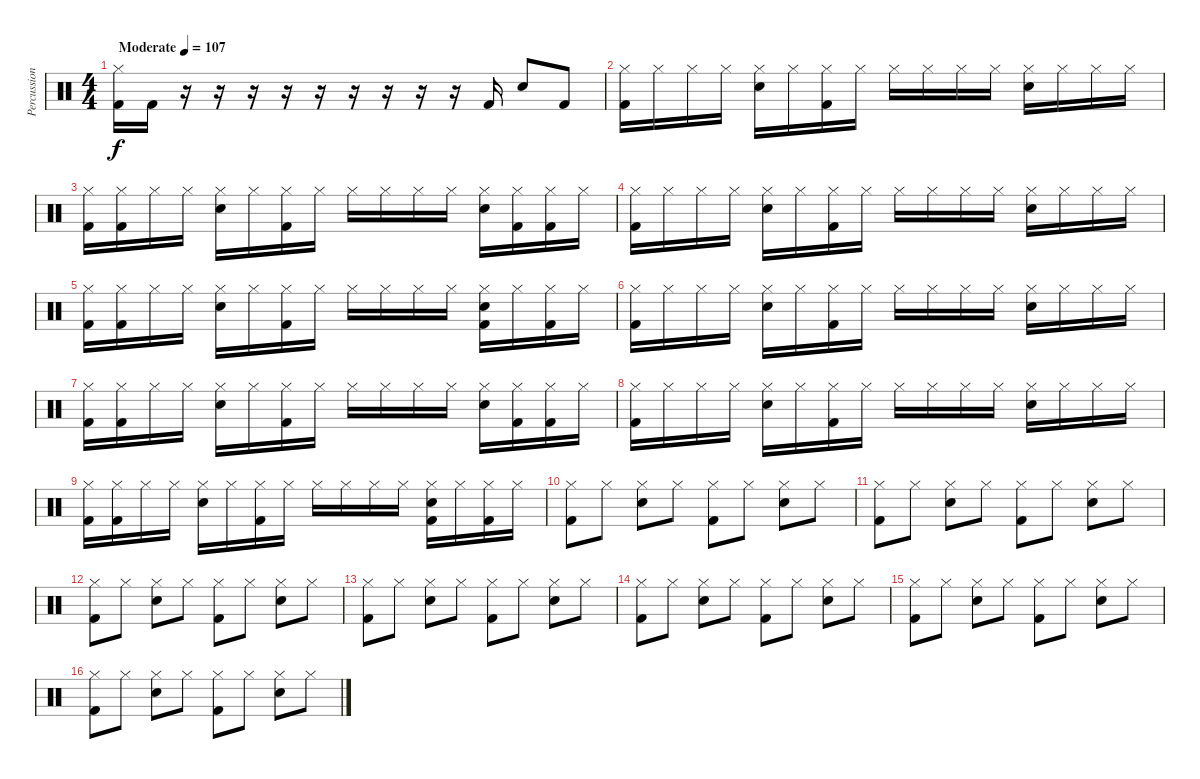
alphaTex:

\track ("Percussion" "Percussion") {instrument percussion}
\staff {score}
\articulation defaults
\ts (4 4)
\tempo (107 "Moderate")
\clef neutral
\ks c
("Kick (hit) 2" "Hi-Hat (closed)").16{dy f} "Kick (hit) 2".16 r.16 r.16 r.16 r.16 r.16 r.16 r.16 r.16 r.16 "Kick (hit) 2".16 "Snare (hit) 2".8 "Kick (hit) 2".8 |
("Hi-Hat (closed)" "Kick (hit) 2").16 "Hi-Hat (closed)".16 "Hi-Hat (closed)".16 "Hi-Hat (closed)".16 ("Hi-Hat (closed)" "Snare (hit) 2").16 "Hi-Hat (closed)".16 ("Hi-Hat (closed)" "Kick (hit) 2").16 "Hi-Hat (closed)".16 "Hi-Hat (closed)".16 "Hi-Hat (closed)".16 "Hi-Hat (closed)".16 "Hi-Hat (closed)".16 ("Hi-Hat (closed)" "Snare (hit) 2").16 "Hi-Hat (closed)".16 "Hi-Hat (closed)".16 "Hi-Hat (closed)".16 |
("Hi-Hat (closed)" "Kick (hit) 2").16 ("Hi-Hat (closed)" "Kick (hit) 2").16 "Hi-Hat (closed)".16 "Hi-Hat (closed)".16 ("Hi-Hat (closed)" "Snare (hit) 2").16 "Hi-Hat (closed)".16 ("Hi-Hat (closed)" "Kick (hit) 2").16 "Hi-Hat (closed)".16 "Hi-Hat (closed)".16 "Hi-Hat (closed)".16 "Hi-Hat (closed)".16 "Hi-Hat (closed)".16 ("Hi-Hat (closed)" "Snare (hit) 2").16 ("Hi-Hat (closed)" "Kick (hit) 2").16 ("Hi-Hat (closed)" "Kick (hit) 2").16 "Hi-Hat (closed)".16 |
("Hi-Hat (closed)" "Kick (hit) 2").16 "Hi-Hat (closed)".16 "Hi-Hat (closed)".16 "Hi-Hat (closed)".16 ("Hi-Hat (closed)" "Snare (hit) 2").16 "Hi-Hat (closed)".16 ("Hi-Hat (closed)" "Kick (hit) 2").16 "Hi-Hat (closed)".16 "Hi-Hat (closed)".16 "Hi-Hat (closed)".16 "Hi-Hat (closed)".16 "Hi-Hat (closed)".16 ("Hi-Hat (closed)" "Snare (hit) 2").16 "Hi-Hat (closed)".16 "Hi-Hat (closed)".16 "Hi-Hat (closed)".16 |
("Hi-Hat (closed)" "Kick (hit) 2").16 ("Hi-Hat (closed)" "Kick (hit) 2").16 "Hi-Hat (closed)".16 "Hi-Hat (closed)".16 ("Hi-Hat (closed)" "Snare (hit) 2").16 "Hi-Hat (closed)".16 ("Hi-Hat (closed)" "Kick (hit) 2").16 "Hi-Hat (closed)".16 "Hi-Hat (closed)".16 "Hi-Hat (closed)".16 "Hi-Hat (closed)".16 "Hi-Hat (closed)".16 ("Hi-Hat (closed)" "Snare (hit) 2" "Kick (hit) 2").16 "Hi-Hat (closed)".16 ("Hi-Hat (closed)" "Kick (hit) 2").16 "Hi-Hat (closed)".16 |
("Hi-Hat (closed)" "Kick (hit) 2").16 "Hi-Hat (closed)".16 "Hi-Hat (closed)".16 "Hi-Hat (closed)".16 ("Hi-Hat (closed)" "Snare (hit) 2").16 "Hi-Hat (closed)".16 ("Hi-Hat (closed)" "Kick (hit) 2").16 "Hi-Hat (closed)".16 "Hi-Hat (closed)".16 "Hi-Hat (closed)".16 "Hi-Hat (closed)".16 "Hi-Hat (closed)".16 ("Hi-Hat (closed)" "Snare (hit) 2").16 "Hi-Hat (closed)".16 "Hi-Hat (closed)".16 "Hi-Hat (closed)".16 |
("Hi-Hat (closed)" "Kick (hit) 2").16 ("Hi-Hat (closed)" "Kick (hit) 2").16 "Hi-Hat (closed)".16 "Hi-Hat (closed)".16 ("Hi-Hat (closed)" "Snare (hit) 2").16 "Hi-Hat (closed)".16 ("Hi-Hat (closed)" "Kick (hit) 2").16 "Hi-Hat (closed)".16 "Hi-Hat (closed)".16 "Hi-Hat (closed)".16 "Hi-Hat (closed)".16 "Hi-Hat (closed)".16 ("Hi-Hat (closed)" "Snare (hit) 2").16 ("Hi-Hat (closed)" "Kick (hit) 2").16 ("Hi-Hat (closed)" "Kick (hit) 2").16 "Hi-Hat (closed)".16 |
("Hi-Hat (closed)" "Kick (hit) 2").16 "Hi-Hat (closed)".16 "Hi-Hat (closed)".16 "Hi-Hat (closed)".16 ("Hi-Hat (closed)" "Snare (hit) 2").16 "Hi-Hat (closed)".16 ("Hi-Hat (closed)" "Kick (hit) 2").16 "Hi-Hat (closed)".16 "Hi-Hat (closed)".16 "Hi-Hat (closed)".16 "Hi-Hat (closed)".16 "Hi-Hat (closed)".16 ("Hi-Hat (closed)" "Snare (hit) 2").16 "Hi-Hat (closed)".16 "Hi-Hat (closed)".16 "Hi-Hat (closed)".16 |
("Hi-Hat (closed)" "Kick (hit) 2").16 ("Hi-Hat (closed)" "Kick (hit) 2").16 "Hi-Hat (closed)".16 "Hi-Hat (closed)".16 ("Hi-Hat (closed)" "Snare (hit) 2").16 "Hi-Hat (closed)".16 ("Hi-Hat (closed)" "Kick (hit) 2").16 "Hi-Hat (closed)".16 "Hi-Hat (closed)".16 "Hi-Hat (closed)".16 "Hi-Hat (closed)".16 "Hi-Hat (closed)".16 ("Hi-Hat (closed)" "Snare (hit) 2" "Kick (hit) 2").16 "Hi-Hat (closed)".16 ("Hi-Hat (closed)" "Kick (hit) 2").16 "Hi-Hat (closed)".16 |
("Hi-Hat (closed)" "Kick (hit) 2").8 "Hi-Hat (closed)".8 ("Hi-Hat (closed)" "Snare (hit) 2").8 "Hi-Hat (closed)".8 ("Hi-Hat (closed)" "Kick (hit) 2").8 "Hi-Hat (closed)".8 ("Hi-Hat (closed)" "Snare (hit) 2").8 "Hi-Hat (closed)".8 |
("Hi-Hat (closed)" "Kick (hit) 2").8 "Hi-Hat (closed)".8 ("Hi-Hat (closed)" "Snare (hit) 2").8 "Hi-Hat (closed)".8 ("Hi-Hat (closed)" "Kick (hit) 2").8 "Hi-Hat (closed)".8 ("Hi-Hat (closed)" "Snare (hit) 2").8 "Hi-Hat (closed)".8 |
("Hi-Hat (closed)" "Kick (hit) 2").8 "Hi-Hat (closed)".8 ("Hi-Hat (closed)" "Snare (hit) 2").8 "Hi-Hat (closed)".8 ("Hi-Hat (closed)" "Kick (hit) 2").8 "Hi-Hat (closed)".8 ("Hi-Hat (closed)" "Snare (hit) 2").8 "Hi-Hat (closed)".8 |
("Hi-Hat (closed)" "Kick (hit) 2").8 "Hi-Hat (closed)".8 ("Hi-Hat (closed)" "Snare (hit) 2").8 "Hi-Hat (closed)".8 ("Hi-Hat (closed)" "Kick (hit) 2").8 "Hi-Hat (closed)".8 ("Hi-Hat (closed)" "Snare (hit) 2").8 "Hi-Hat (closed)".8 |
("Hi-Hat (closed)" "Kick (hit) 2").8 "Hi-Hat (closed)".8 ("Hi-Hat (closed)" "Snare (hit) 2").8 "Hi-Hat (closed)".8 ("Hi-Hat (closed)" "Kick (hit) 2").8 "Hi-Hat (closed)".8 ("Hi-Hat (closed)" "Snare (hit) 2").8 "Hi-Hat (closed)".8 |
("Hi-Hat (closed)" "Kick (hit) 2").8 "Hi-Hat (closed)".8 ("Hi-Hat (closed)" "Snare (hit) 2").8 "Hi-Hat (closed)".8 ("Hi-Hat (closed)" "Kick (hit) 2").8 "Hi-Hat (closed)".8 ("Hi-Hat (closed)" "Snare (hit) 2").8 "Hi-Hat (closed)".8 |
("Hi-Hat (closed)" "Kick (hit) 2").8 "Hi-Hat (closed)".8 ("Hi-Hat (closed)" "Snare (hit) 2").8 "Hi-Hat (closed)".8 ("Hi-Hat (closed)" "Kick (hit) 2").8 "Hi-Hat (closed)".8 ("Hi-Hat (closed)" "Snare (hit) 2").8 "Hi-Hat (closed)".8
